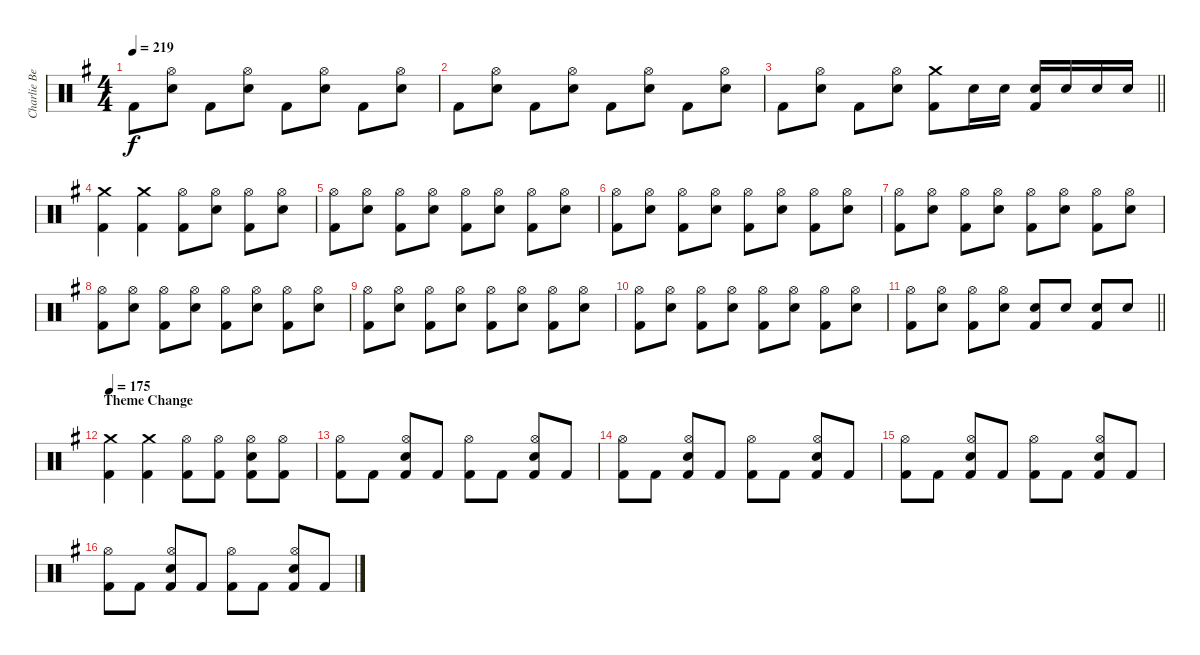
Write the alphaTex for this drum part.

\track ("Charlie Benate" "Charlie Be") {instrument percussion}
\staff {score}
\articulation defaults
\ts (4 4)
\tempo 219
\clef neutral
\ks g "Kick (hit) 2".8{dy f}
("Hi-Hat (open)" "Snare (hit) 2").8 "Kick (hit) 2".8 ("Hi-Hat (open)" "Snare (hit) 2").8 "Kick (hit) 2".8 ("Hi-Hat (open)" "Snare (hit) 2").8 "Kick (hit) 2".8 ("Hi-Hat (open)" "Snare (hit) 2").8 |
"Kick (hit) 2".8 ("Hi-Hat (open)" "Snare (hit) 2").8 "Kick (hit) 2".8 ("Hi-Hat (open)" "Snare (hit) 2").8 "Kick (hit) 2".8 ("Hi-Hat (open)" "Snare (hit) 2").8 "Kick (hit) 2".8 ("Hi-Hat (open)" "Snare (hit) 2").8 |
\barLineRight lightlight "Kick (hit) 2".8
("Hi-Hat (open)" "Snare (hit) 2").8 "Kick (hit) 2".8 ("Hi-Hat (open)" "Snare (hit) 2").8 ("Crash medium (hit)" "Kick (hit) 2").8 "Snare (hit) 2".16 "Snare (hit) 2".16 ("Snare (hit) 2" "Kick (hit) 2").16 "Snare (hit) 2".16 "Snare (hit) 2".16 "Snare (hit) 2".16 |
("Crash medium (hit)" "Kick (hit) 2").4 ("Crash medium (hit)" "Kick (hit) 2").4 ("Hi-Hat (open)" "Kick (hit) 2").8 ("Hi-Hat (open)" "Snare (hit) 2").8 ("Hi-Hat (open)" "Kick (hit) 2").8 ("Hi-Hat (open)" "Snare (hit) 2").8 |
("Hi-Hat (open)" "Kick (hit) 2").8 ("Hi-Hat (open)" "Snare (hit) 2").8 ("Hi-Hat (open)" "Kick (hit) 2").8 ("Hi-Hat (open)" "Snare (hit) 2").8 ("Hi-Hat (open)" "Kick (hit) 2").8 ("Hi-Hat (open)" "Snare (hit) 2").8 ("Hi-Hat (open)" "Kick (hit) 2").8 ("Hi-Hat (open)" "Snare (hit) 2").8 |
("Hi-Hat (open)" "Kick (hit) 2").8 ("Hi-Hat (open)" "Snare (hit) 2").8 ("Hi-Hat (open)" "Kick (hit) 2").8 ("Hi-Hat (open)" "Snare (hit) 2").8 ("Hi-Hat (open)" "Kick (hit) 2").8 ("Hi-Hat (open)" "Snare (hit) 2").8 ("Hi-Hat (open)" "Kick (hit) 2").8 ("Hi-Hat (open)" "Snare (hit) 2").8 |
("Hi-Hat (open)" "Kick (hit) 2").8 ("Hi-Hat (open)" "Snare (hit) 2").8 ("Hi-Hat (open)" "Kick (hit) 2").8 ("Hi-Hat (open)" "Snare (hit) 2").8 ("Hi-Hat (open)" "Kick (hit) 2").8 ("Hi-Hat (open)" "Snare (hit) 2").8 ("Hi-Hat (open)" "Kick (hit) 2").8 ("Hi-Hat (open)" "Snare (hit) 2").8 |
("Hi-Hat (open)" "Kick (hit) 2").8 ("Hi-Hat (open)" "Snare (hit) 2").8 ("Hi-Hat (open)" "Kick (hit) 2").8 ("Hi-Hat (open)" "Snare (hit) 2").8 ("Hi-Hat (open)" "Kick (hit) 2").8 ("Hi-Hat (open)" "Snare (hit) 2").8 ("Hi-Hat (open)" "Kick (hit) 2").8 ("Hi-Hat (open)" "Snare (hit) 2").8 |
("Hi-Hat (open)" "Kick (hit) 2").8 ("Hi-Hat (open)" "Snare (hit) 2").8 ("Hi-Hat (open)" "Kick (hit) 2").8 ("Hi-Hat (open)" "Snare (hit) 2").8 ("Hi-Hat (open)" "Kick (hit) 2").8 ("Hi-Hat (open)" "Snare (hit) 2").8 ("Hi-Hat (open)" "Kick (hit) 2").8 ("Hi-Hat (open)" "Snare (hit) 2").8 |
("Hi-Hat (open)" "Kick (hit) 2").8 ("Hi-Hat (open)" "Snare (hit) 2").8 ("Hi-Hat (open)" "Kick (hit) 2").8 ("Hi-Hat (open)" "Snare (hit) 2").8 ("Hi-Hat (open)" "Kick (hit) 2").8 ("Hi-Hat (open)" "Snare (hit) 2").8 ("Hi-Hat (open)" "Kick (hit) 2").8 ("Hi-Hat (open)" "Snare (hit) 2").8 |
\barLineRight lightlight
("Hi-Hat (open)" "Kick (hit) 2").8 ("Hi-Hat (open)" "Snare (hit) 2").8 ("Hi-Hat (open)" "Kick (hit) 2").8 ("Hi-Hat (open)" "Snare (hit) 2").8 ("Snare (hit) 2" "Kick (hit) 2").8 "Snare (hit) 2".8 ("Snare (hit) 2" "Kick (hit) 2").8 "Snare (hit) 2".8 |
\section ("" "Theme Change")
\tempo 175
("Crash medium (hit)" "Kick (hit) 2").4 ("Crash medium (hit)" "Kick (hit) 2").4 ("Hi-Hat (open)" "Kick (hit) 2").8 ("Hi-Hat (open)" "Kick (hit) 2").8 ("Hi-Hat (open)" "Snare (hit) 2" "Kick (hit) 2").8 ("Hi-Hat (open)" "Kick (hit) 2").8 |
("Hi-Hat (open)" "Kick (hit) 2").8 "Kick (hit) 2".8 ("Hi-Hat (open)" "Snare (hit) 2" "Kick (hit) 2").8 "Kick (hit) 2".8 ("Hi-Hat (open)" "Kick (hit) 2").8 "Kick (hit) 2".8 ("Hi-Hat (open)" "Snare (hit) 2" "Kick (hit) 2").8 "Kick (hit) 2".8 |
("Hi-Hat (open)" "Kick (hit) 2").8 "Kick (hit) 2".8 ("Hi-Hat (open)" "Snare (hit) 2" "Kick (hit) 2").8 "Kick (hit) 2".8 ("Hi-Hat (open)" "Kick (hit) 2").8 "Kick (hit) 2".8 ("Hi-Hat (open)" "Snare (hit) 2" "Kick (hit) 2").8 "Kick (hit) 2".8 |
("Hi-Hat (open)" "Kick (hit) 2").8 "Kick (hit) 2".8 ("Hi-Hat (open)" "Snare (hit) 2" "Kick (hit) 2").8 "Kick (hit) 2".8 ("Hi-Hat (open)" "Kick (hit) 2").8 "Kick (hit) 2".8 ("Hi-Hat (open)" "Snare (hit) 2" "Kick (hit) 2").8 "Kick (hit) 2".8 |
("Hi-Hat (open)" "Kick (hit) 2").8 "Kick (hit) 2".8 ("Hi-Hat (open)" "Snare (hit) 2" "Kick (hit) 2").8 "Kick (hit) 2".8 ("Hi-Hat (open)" "Kick (hit) 2").8 "Kick (hit) 2".8 ("Hi-Hat (open)" "Snare (hit) 2" "Kick (hit) 2").8 "Kick (hit) 2".8
